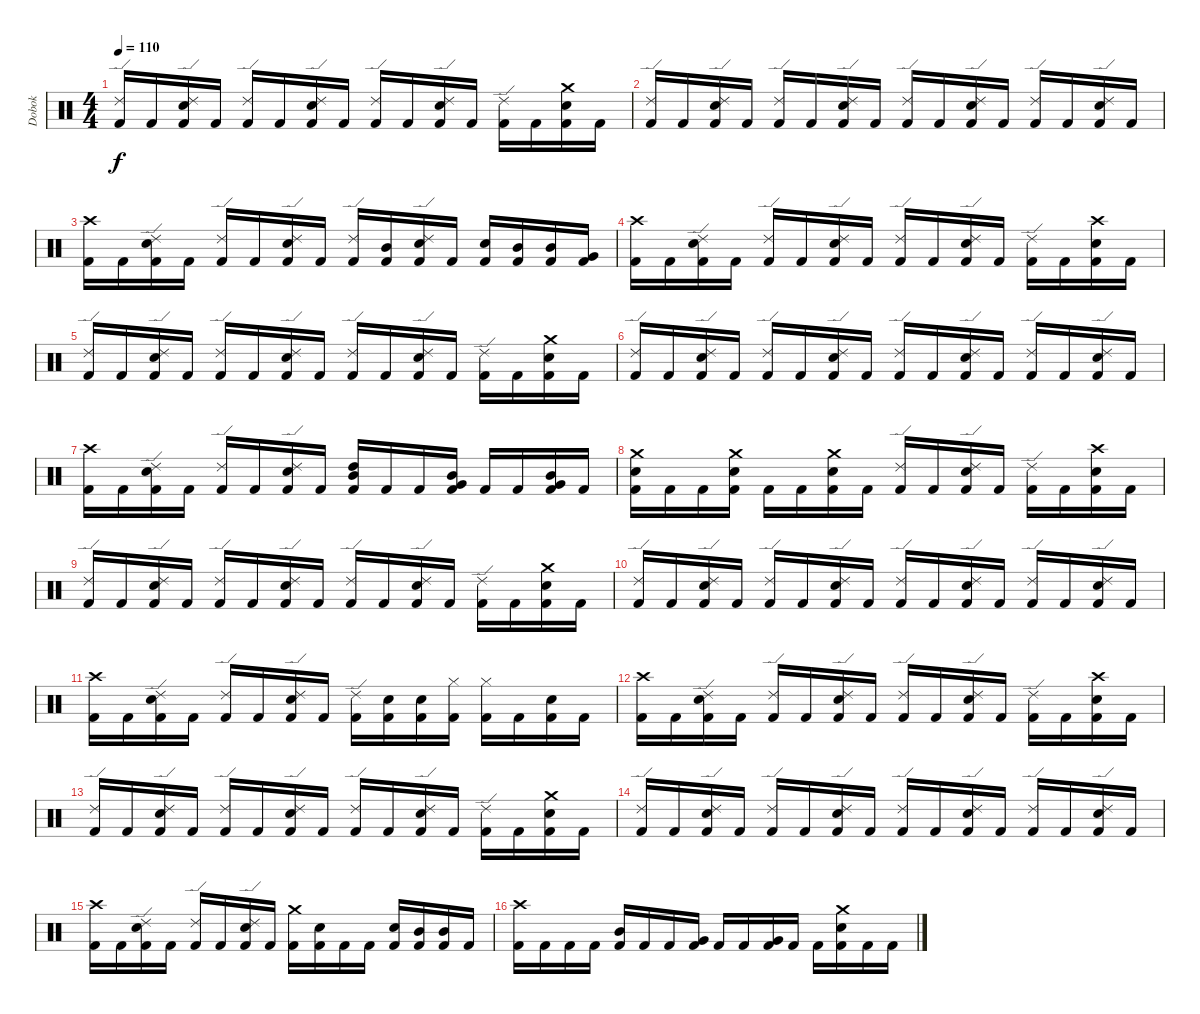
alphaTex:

\track ("Dobok" "Dobok") {instrument percussion}
\staff {score}
\articulation defaults
\ts (4 4)
\tempo 110
\clef neutral
\ks c
("Ride (edge) 2" "Kick (hit) 2").16{dy f} "Kick (hit) 2".16 ("Ride (edge) 2" "Snare (hit) 2" "Kick (hit) 2").16 "Kick (hit) 2".16 ("Ride (edge) 2" "Kick (hit) 2").16 "Kick (hit) 2".16 ("Ride (edge) 2" "Snare (hit) 2" "Kick (hit) 2").16 "Kick (hit) 2".16 ("Ride (edge) 2" "Kick (hit) 2").16 "Kick (hit) 2".16 ("Ride (edge) 2" "Snare (hit) 2" "Kick (hit) 2").16 "Kick (hit) 2".16 ("Ride (edge) 2" "Kick (hit) 2").16 "Kick (hit) 2".16 ("Crash medium (hit)" "Snare (hit) 2" "Kick (hit) 2").16 "Kick (hit) 2".16 |
("Ride (edge) 2" "Kick (hit) 2").16 "Kick (hit) 2".16 ("Ride (edge) 2" "Snare (hit) 2" "Kick (hit) 2").16 "Kick (hit) 2".16 ("Ride (edge) 2" "Kick (hit) 2").16 "Kick (hit) 2".16 ("Ride (edge) 2" "Snare (hit) 2" "Kick (hit) 2").16 "Kick (hit) 2".16 ("Ride (edge) 2" "Kick (hit) 2").16 "Kick (hit) 2".16 ("Ride (edge) 2" "Snare (hit) 2" "Kick (hit) 2").16 "Kick (hit) 2".16 ("Ride (edge) 2" "Kick (hit) 2").16 "Kick (hit) 2".16 ("Ride (edge) 2" "Snare (hit) 2" "Kick (hit) 2").16 "Kick (hit) 2".16 |
("Crash high (hit)" "Kick (hit) 2").16 "Kick (hit) 2".16 ("Ride (edge) 2" "Snare (hit) 2" "Kick (hit) 2").16 "Kick (hit) 2".16 ("Ride (edge) 2" "Kick (hit) 2").16 "Kick (hit) 2".16 ("Ride (edge) 2" "Snare (hit) 2" "Kick (hit) 2").16 "Kick (hit) 2".16 ("Ride (edge) 2" "Kick (hit) 2").16 ("Mid Tom (hit)" "Kick (hit) 2").16 ("Ride (edge) 2" "Snare (hit) 2" "Kick (hit) 2").16 "Kick (hit) 2".16 ("Snare (hit) 2" "Kick (hit) 2").16 ("Mid Tom (hit)" "Kick (hit) 2").16 ("Mid Tom (hit)" "Kick (hit) 2").16 ("Very Low Tom (hit)" "Kick (hit) 2").16 |
("Crash high (hit)" "Kick (hit) 2").16 "Kick (hit) 2".16 ("Ride (edge) 2" "Snare (hit) 2" "Kick (hit) 2").16 "Kick (hit) 2".16 ("Ride (edge) 2" "Kick (hit) 2").16 "Kick (hit) 2".16 ("Ride (edge) 2" "Snare (hit) 2" "Kick (hit) 2").16 "Kick (hit) 2".16 ("Ride (edge) 2" "Kick (hit) 2").16 "Kick (hit) 2".16 ("Ride (edge) 2" "Snare (hit) 2" "Kick (hit) 2").16 "Kick (hit) 2".16 ("Ride (edge) 2" "Kick (hit) 2").16 "Kick (hit) 2".16 ("Crash high (hit)" "Snare (hit) 2" "Kick (hit) 2").16 "Kick (hit) 2".16 |
("Ride (edge) 2" "Kick (hit) 2").16 "Kick (hit) 2".16 ("Ride (edge) 2" "Snare (hit) 2" "Kick (hit) 2").16 "Kick (hit) 2".16 ("Ride (edge) 2" "Kick (hit) 2").16 "Kick (hit) 2".16 ("Ride (edge) 2" "Snare (hit) 2" "Kick (hit) 2").16 "Kick (hit) 2".16 ("Ride (edge) 2" "Kick (hit) 2").16 "Kick (hit) 2".16 ("Ride (edge) 2" "Snare (hit) 2" "Kick (hit) 2").16 "Kick (hit) 2".16 ("Ride (edge) 2" "Kick (hit) 2").16 "Kick (hit) 2".16 ("Crash medium (hit)" "Snare (hit) 2" "Kick (hit) 2").16 "Kick (hit) 2".16 |
("Ride (edge) 2" "Kick (hit) 2").16 "Kick (hit) 2".16 ("Ride (edge) 2" "Snare (hit) 2" "Kick (hit) 2").16 "Kick (hit) 2".16 ("Ride (edge) 2" "Kick (hit) 2").16 "Kick (hit) 2".16 ("Ride (edge) 2" "Snare (hit) 2" "Kick (hit) 2").16 "Kick (hit) 2".16 ("Ride (edge) 2" "Kick (hit) 2").16 "Kick (hit) 2".16 ("Ride (edge) 2" "Snare (hit) 2" "Kick (hit) 2").16 "Kick (hit) 2".16 ("Ride (edge) 2" "Kick (hit) 2").16 "Kick (hit) 2".16 ("Ride (edge) 2" "Snare (hit) 2" "Kick (hit) 2").16 "Kick (hit) 2".16 |
("Crash high (hit)" "Kick (hit) 2").16 "Kick (hit) 2".16 ("Ride (edge) 2" "Snare (hit) 2" "Kick (hit) 2").16 "Kick (hit) 2".16 ("Ride (edge) 2" "Kick (hit) 2").16 "Kick (hit) 2".16 ("Ride (edge) 2" "Snare (hit) 2" "Kick (hit) 2").16 "Kick (hit) 2".16 ("High Tom (hit)" "Mid Tom (hit)" "Kick (hit) 2").16 "Kick (hit) 2".16 "Kick (hit) 2".16 ("Mid Tom (hit)" "Very Low Tom (hit)" "Kick (hit) 2").16 "Kick (hit) 2".16 "Kick (hit) 2".16 ("Mid Tom (hit)" "Very Low Tom (hit)" "Kick (hit) 2").16 "Kick (hit) 2".16 |
("Crash medium (hit)" "Snare (hit) 2" "Kick (hit) 2").16 "Kick (hit) 2".16 "Kick (hit) 2".16 ("Crash medium (hit)" "Snare (hit) 2" "Kick (hit) 2").16 "Kick (hit) 2".16 "Kick (hit) 2".16 ("Crash medium (hit)" "Snare (hit) 2" "Kick (hit) 2").16 "Kick (hit) 2".16 ("Ride (edge) 2" "Kick (hit) 2").16 "Kick (hit) 2".16 ("Ride (edge) 2" "Snare (hit) 2" "Kick (hit) 2").16 "Kick (hit) 2".16 ("Ride (edge) 2" "Kick (hit) 2").16 "Kick (hit) 2".16 ("Crash high (hit)" "Snare (hit) 2" "Kick (hit) 2").16 "Kick (hit) 2".16 |
("Ride (edge) 2" "Kick (hit) 2").16 "Kick (hit) 2".16 ("Ride (edge) 2" "Snare (hit) 2" "Kick (hit) 2").16 "Kick (hit) 2".16 ("Ride (edge) 2" "Kick (hit) 2").16 "Kick (hit) 2".16 ("Ride (edge) 2" "Snare (hit) 2" "Kick (hit) 2").16 "Kick (hit) 2".16 ("Ride (edge) 2" "Kick (hit) 2").16 "Kick (hit) 2".16 ("Ride (edge) 2" "Snare (hit) 2" "Kick (hit) 2").16 "Kick (hit) 2".16 ("Ride (edge) 2" "Kick (hit) 2").16 "Kick (hit) 2".16 ("Crash medium (hit)" "Snare (hit) 2" "Kick (hit) 2").16 "Kick (hit) 2".16 |
("Ride (edge) 2" "Kick (hit) 2").16 "Kick (hit) 2".16 ("Ride (edge) 2" "Snare (hit) 2" "Kick (hit) 2").16 "Kick (hit) 2".16 ("Ride (edge) 2" "Kick (hit) 2").16 "Kick (hit) 2".16 ("Ride (edge) 2" "Snare (hit) 2" "Kick (hit) 2").16 "Kick (hit) 2".16 ("Ride (edge) 2" "Kick (hit) 2").16 "Kick (hit) 2".16 ("Ride (edge) 2" "Snare (hit) 2" "Kick (hit) 2").16 "Kick (hit) 2".16 ("Ride (edge) 2" "Kick (hit) 2").16 "Kick (hit) 2".16 ("Ride (edge) 2" "Snare (hit) 2" "Kick (hit) 2").16 "Kick (hit) 2".16 |
("Crash high (hit)" "Kick (hit) 2").16 "Kick (hit) 2".16 ("Ride (edge) 2" "Snare (hit) 2" "Kick (hit) 2").16 "Kick (hit) 2".16 ("Ride (edge) 2" "Kick (hit) 2").16 "Kick (hit) 2".16 ("Ride (edge) 2" "Snare (hit) 2" "Kick (hit) 2").16 "Kick (hit) 2".16 ("Ride (edge) 2" "Kick (hit) 2").16 ("Snare (hit) 2" "Kick (hit) 2").16 ("Snare (hit) 2" "Kick (hit) 2").16 ("Hi-Hat (closed)" "Kick (hit) 2").16 ("Hi-Hat (closed)" "Kick (hit) 2").16 "Kick (hit) 2".16 ("Snare (hit) 2" "Kick (hit) 2").16 "Kick (hit) 2".16 |
("Crash high (hit)" "Kick (hit) 2").16 "Kick (hit) 2".16 ("Ride (edge) 2" "Snare (hit) 2" "Kick (hit) 2").16 "Kick (hit) 2".16 ("Ride (edge) 2" "Kick (hit) 2").16 "Kick (hit) 2".16 ("Ride (edge) 2" "Snare (hit) 2" "Kick (hit) 2").16 "Kick (hit) 2".16 ("Ride (edge) 2" "Kick (hit) 2").16 "Kick (hit) 2".16 ("Ride (edge) 2" "Snare (hit) 2" "Kick (hit) 2").16 "Kick (hit) 2".16 ("Ride (edge) 2" "Kick (hit) 2").16 "Kick (hit) 2".16 ("Crash high (hit)" "Snare (hit) 2" "Kick (hit) 2").16 "Kick (hit) 2".16 |
("Ride (edge) 2" "Kick (hit) 2").16 "Kick (hit) 2".16 ("Ride (edge) 2" "Snare (hit) 2" "Kick (hit) 2").16 "Kick (hit) 2".16 ("Ride (edge) 2" "Kick (hit) 2").16 "Kick (hit) 2".16 ("Ride (edge) 2" "Snare (hit) 2" "Kick (hit) 2").16 "Kick (hit) 2".16 ("Ride (edge) 2" "Kick (hit) 2").16 "Kick (hit) 2".16 ("Ride (edge) 2" "Snare (hit) 2" "Kick (hit) 2").16 "Kick (hit) 2".16 ("Ride (edge) 2" "Kick (hit) 2").16 "Kick (hit) 2".16 ("Crash medium (hit)" "Snare (hit) 2" "Kick (hit) 2").16 "Kick (hit) 2".16 |
("Ride (edge) 2" "Kick (hit) 2").16 "Kick (hit) 2".16 ("Ride (edge) 2" "Snare (hit) 2" "Kick (hit) 2").16 "Kick (hit) 2".16 ("Ride (edge) 2" "Kick (hit) 2").16 "Kick (hit) 2".16 ("Ride (edge) 2" "Snare (hit) 2" "Kick (hit) 2").16 "Kick (hit) 2".16 ("Ride (edge) 2" "Kick (hit) 2").16 "Kick (hit) 2".16 ("Ride (edge) 2" "Snare (hit) 2" "Kick (hit) 2").16 "Kick (hit) 2".16 ("Ride (edge) 2" "Kick (hit) 2").16 "Kick (hit) 2".16 ("Ride (edge) 2" "Snare (hit) 2" "Kick (hit) 2").16 "Kick (hit) 2".16 |
("Crash high (hit)" "Kick (hit) 2").16 "Kick (hit) 2".16 ("Ride (edge) 2" "Snare (hit) 2" "Kick (hit) 2").16 "Kick (hit) 2".16 ("Ride (edge) 2" "Kick (hit) 2").16 "Kick (hit) 2".16 ("Ride (edge) 2" "Snare (hit) 2" "Kick (hit) 2").16 "Kick (hit) 2".16 ("Crash medium (hit)" "Kick (hit) 2").16 ("Snare (hit) 2" "Kick (hit) 2").16 "Kick (hit) 2".16 "Kick (hit) 2".16 ("Snare (hit) 2" "Kick (hit) 2").16 ("Mid Tom (hit)" "Kick (hit) 2").16 ("Mid Tom (hit)" "Kick (hit) 2").16 "Kick (hit) 2".16 |
("Crash high (hit)" "Kick (hit) 2").16 "Kick (hit) 2".16 "Kick (hit) 2".16 "Kick (hit) 2".16 ("Mid Tom (hit)" "Kick (hit) 2").16 "Kick (hit) 2".16 "Kick (hit) 2".16 ("Very Low Tom (hit)" "Kick (hit) 2").16 "Kick (hit) 2".16 "Kick (hit) 2".16 ("Very Low Tom (hit)" "Kick (hit) 2").16 "Kick (hit) 2".16 "Kick (hit) 2".16 ("Crash medium (hit)" "Snare (hit) 2" "Kick (hit) 2").16 "Kick (hit) 2".16 "Kick (hit) 2".16
